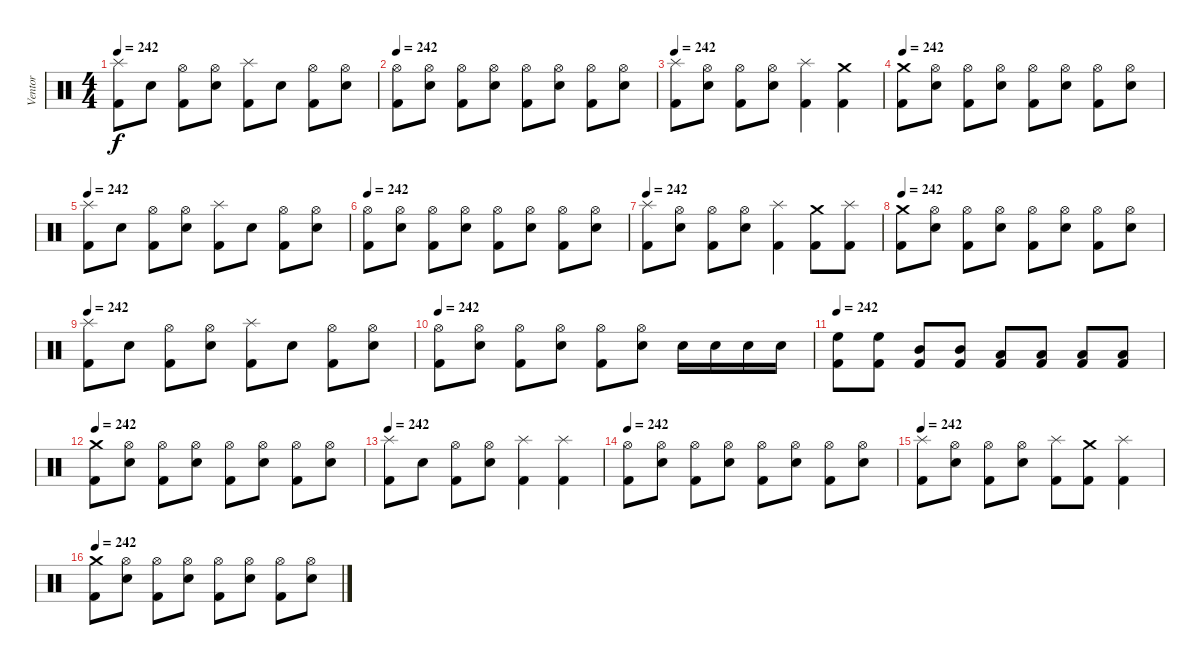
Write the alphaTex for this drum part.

\track ("Ventor" "Ventor") {instrument percussion}
\staff {score}
\articulation defaults
\ts (4 4)
\tempo 242
\clef neutral
\ks c
("Splash (hit)" "Kick (hit) 2").8{dy f} "Snare (hit) 2".8 ("Hi-Hat (open)" "Kick (hit) 2").8 ("Hi-Hat (open)" "Snare (hit) 2").8 ("Splash (hit)" "Kick (hit) 2").8 "Snare (hit) 2".8 ("Hi-Hat (open)" "Kick (hit) 2").8 ("Hi-Hat (open)" "Snare (hit) 2").8 |
\tempo 242
("Hi-Hat (open)" "Kick (hit) 2").8 ("Hi-Hat (open)" "Snare (hit) 2").8 ("Hi-Hat (open)" "Kick (hit) 2").8 ("Hi-Hat (open)" "Snare (hit) 2").8 ("Hi-Hat (open)" "Kick (hit) 2").8 ("Hi-Hat (open)" "Snare (hit) 2").8 ("Hi-Hat (open)" "Kick (hit) 2").8 ("Hi-Hat (open)" "Snare (hit) 2").8 |
\tempo 242
("Splash (hit)" "Kick (hit) 2").8 ("Hi-Hat (open)" "Snare (hit) 2").8 ("Hi-Hat (open)" "Kick (hit) 2").8 ("Hi-Hat (open)" "Snare (hit) 2").8 ("Splash (hit)" "Kick (hit) 2").4 ("Crash medium (hit)" "Kick (hit) 2").4 |
\tempo 242
("Crash medium (hit)" "Kick (hit) 2").8 ("Hi-Hat (open)" "Snare (hit) 2").8 ("Hi-Hat (open)" "Kick (hit) 2").8 ("Hi-Hat (open)" "Snare (hit) 2").8 ("Hi-Hat (open)" "Kick (hit) 2").8 ("Hi-Hat (open)" "Snare (hit) 2").8 ("Hi-Hat (open)" "Kick (hit) 2").8 ("Hi-Hat (open)" "Snare (hit) 2").8 |
\tempo 242
("Splash (hit)" "Kick (hit) 2").8 "Snare (hit) 2".8 ("Hi-Hat (open)" "Kick (hit) 2").8 ("Hi-Hat (open)" "Snare (hit) 2").8 ("Splash (hit)" "Kick (hit) 2").8 "Snare (hit) 2".8 ("Hi-Hat (open)" "Kick (hit) 2").8 ("Hi-Hat (open)" "Snare (hit) 2").8 |
\tempo 242
("Hi-Hat (open)" "Kick (hit) 2").8 ("Hi-Hat (open)" "Snare (hit) 2").8 ("Hi-Hat (open)" "Kick (hit) 2").8 ("Hi-Hat (open)" "Snare (hit) 2").8 ("Hi-Hat (open)" "Kick (hit) 2").8 ("Hi-Hat (open)" "Snare (hit) 2").8 ("Hi-Hat (open)" "Kick (hit) 2").8 ("Hi-Hat (open)" "Snare (hit) 2").8 |
\tempo 242
("Splash (hit)" "Kick (hit) 2").8 ("Hi-Hat (open)" "Snare (hit) 2").8 ("Hi-Hat (open)" "Kick (hit) 2").8 ("Hi-Hat (open)" "Snare (hit) 2").8 ("Splash (hit)" "Kick (hit) 2").4 ("Crash medium (hit)" "Kick (hit) 2").8 ("Splash (hit)" "Kick (hit) 2").8 |
\tempo 242
("Crash medium (hit)" "Kick (hit) 2").8 ("Hi-Hat (open)" "Snare (hit) 2").8 ("Hi-Hat (open)" "Kick (hit) 2").8 ("Hi-Hat (open)" "Snare (hit) 2").8 ("Hi-Hat (open)" "Kick (hit) 2").8 ("Hi-Hat (open)" "Snare (hit) 2").8 ("Hi-Hat (open)" "Kick (hit) 2").8 ("Hi-Hat (open)" "Snare (hit) 2").8 |
\tempo 242
("Splash (hit)" "Kick (hit) 2").8 "Snare (hit) 2".8 ("Hi-Hat (open)" "Kick (hit) 2").8 ("Hi-Hat (open)" "Snare (hit) 2").8 ("Splash (hit)" "Kick (hit) 2").8 "Snare (hit) 2".8 ("Hi-Hat (open)" "Kick (hit) 2").8 ("Hi-Hat (open)" "Snare (hit) 2").8 |
\tempo 242
("Hi-Hat (open)" "Kick (hit) 2").8 ("Hi-Hat (open)" "Snare (hit) 2").8 ("Hi-Hat (open)" "Kick (hit) 2").8 ("Hi-Hat (open)" "Snare (hit) 2").8 ("Hi-Hat (open)" "Kick (hit) 2").8 ("Hi-Hat (open)" "Snare (hit) 2").8 "Snare (hit) 2".16 "Snare (hit) 2".16 "Snare (hit) 2".16 "Snare (hit) 2".16 |
\tempo 242
("High Floor Tom (hit)" "Kick (hit) 2").8 ("High Floor Tom (hit)" "Kick (hit) 2").8 ("Mid Tom (hit)" "Kick (hit) 2").8 ("Mid Tom (hit)" "Kick (hit) 2").8 ("Low Tom (hit)" "Kick (hit) 2").8 ("Low Tom (hit)" "Kick (hit) 2").8 ("Low Floor Tom (hit)" "Kick (hit) 2").8 ("Low Floor Tom (hit)" "Kick (hit) 2").8 |
\tempo 242
("Crash medium (hit)" "Kick (hit) 2").8 ("Hi-Hat (open)" "Snare (hit) 2").8 ("Hi-Hat (open)" "Kick (hit) 2").8 ("Hi-Hat (open)" "Snare (hit) 2").8 ("Hi-Hat (open)" "Kick (hit) 2").8 ("Hi-Hat (open)" "Snare (hit) 2").8 ("Hi-Hat (open)" "Kick (hit) 2").8 ("Hi-Hat (open)" "Snare (hit) 2").8 |
\tempo 242
("Splash (hit)" "Kick (hit) 2").8 "Snare (hit) 2".8 ("Hi-Hat (open)" "Kick (hit) 2").8 ("Hi-Hat (open)" "Snare (hit) 2").8 ("Splash (hit)" "Kick (hit) 2").4 ("Splash (hit)" "Kick (hit) 2").4 |
\tempo 242
("Hi-Hat (open)" "Kick (hit) 2").8 ("Hi-Hat (open)" "Snare (hit) 2").8 ("Hi-Hat (open)" "Kick (hit) 2").8 ("Hi-Hat (open)" "Snare (hit) 2").8 ("Hi-Hat (open)" "Kick (hit) 2").8 ("Hi-Hat (open)" "Snare (hit) 2").8 ("Hi-Hat (open)" "Kick (hit) 2").8 ("Hi-Hat (open)" "Snare (hit) 2").8 |
\tempo 242
("Splash (hit)" "Kick (hit) 2").8 ("Hi-Hat (open)" "Snare (hit) 2").8 ("Hi-Hat (open)" "Kick (hit) 2").8 ("Hi-Hat (open)" "Snare (hit) 2").8 ("Splash (hit)" "Kick (hit) 2").8 ("Crash medium (hit)" "Kick (hit) 2").8 ("Splash (hit)" "Kick (hit) 2").4 |
\tempo 242
("Crash medium (hit)" "Kick (hit) 2").8 ("Hi-Hat (open)" "Snare (hit) 2").8 ("Hi-Hat (open)" "Kick (hit) 2").8 ("Hi-Hat (open)" "Snare (hit) 2").8 ("Hi-Hat (open)" "Kick (hit) 2").8 ("Hi-Hat (open)" "Snare (hit) 2").8 ("Hi-Hat (open)" "Kick (hit) 2").8 ("Hi-Hat (open)" "Snare (hit) 2").8
